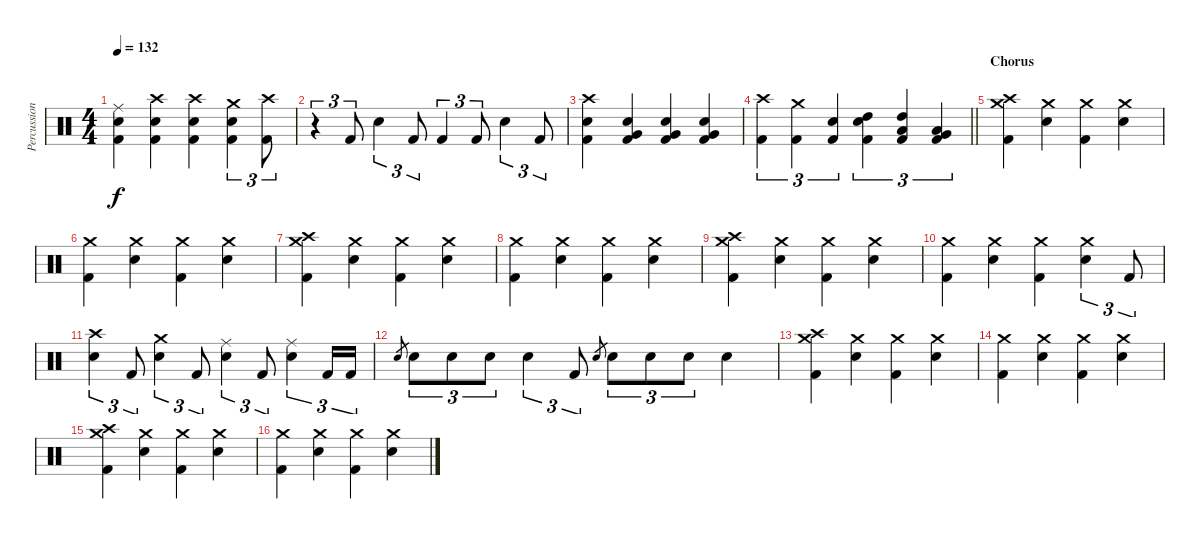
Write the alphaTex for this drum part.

\track ("Percussion" "Percussion") {instrument percussion}
\staff {score}
\articulation defaults
\ts (4 4)
\tempo 132
\clef neutral
\ks c
("Ride (middle)" "Snare (hit) 2" "Kick (hit) 2").4{dy f} ("Crash high (hit)" "Snare (hit) 2" "Kick (hit) 2").4 ("Crash high (hit)" "Snare (hit) 2" "Kick (hit) 2").4 ("Crash medium (hit)" "Snare (hit) 2" "Kick (hit) 2").4{tu (3 2)} ("Crash high (hit)" "Kick (hit) 2").8{tu (3 2)} |
r.4{tu (3 2)} "Kick (hit) 2".8{tu (3 2)} "Snare (hit) 2".4{tu (3 2)} "Kick (hit) 2".8{tu (3 2)} "Kick (hit) 2".4{tu (3 2)} "Kick (hit) 2".8{tu (3 2)} "Snare (hit) 2".4{tu (3 2)} "Kick (hit) 2".8{tu (3 2)} |
("Crash high (hit)" "Snare (hit) 2" "Kick (hit) 2").4 ("Very Low Tom (hit)" "Snare (hit) 2" "Kick (hit) 2").4 ("Very Low Tom (hit)" "Snare (hit) 2" "Kick (hit) 2").4 ("Very Low Tom (hit)" "Snare (hit) 2" "Kick (hit) 2").4 |
\barLineRight lightlight
("Crash high (hit)" "Kick (hit) 2").4{tu (3 2)} ("Crash medium (hit)" "Kick (hit) 2").4{tu (3 2)} ("Snare (hit) 2" "Kick (hit) 2").4{tu (3 2)} ("High Tom (hit)" "Snare (hit) 2" "Kick (hit) 2").4{tu (3 2)} ("Low Tom (hit)" "High Tom (hit)" "Kick (hit) 2").4{tu (3 2)} ("Very Low Tom (hit)" "Low Tom (hit)" "Kick (hit) 2").4{tu (3 2)} |
\section ("" "Chorus")
("Crash high (hit)" "Crash medium (hit)" "Kick (hit) 2").4 ("Crash medium (hit)" "Snare (hit) 2").4 ("Crash medium (hit)" "Kick (hit) 2").4 ("Crash medium (hit)" "Snare (hit) 2").4 |
("Crash medium (hit)" "Kick (hit) 2").4 ("Crash medium (hit)" "Snare (hit) 2").4 ("Crash medium (hit)" "Kick (hit) 2").4 ("Crash medium (hit)" "Snare (hit) 2").4 |
("Crash medium (hit)" "Crash high (hit)" "Kick (hit) 2").4 ("Crash medium (hit)" "Snare (hit) 2").4 ("Crash medium (hit)" "Kick (hit) 2").4 ("Crash medium (hit)" "Snare (hit) 2").4 |
("Crash medium (hit)" "Kick (hit) 2").4 ("Crash medium (hit)" "Snare (hit) 2").4 ("Crash medium (hit)" "Kick (hit) 2").4 ("Crash medium (hit)" "Snare (hit) 2").4 |
("Crash medium (hit)" "Crash high (hit)" "Kick (hit) 2").4 ("Crash medium (hit)" "Snare (hit) 2").4 ("Crash medium (hit)" "Kick (hit) 2").4 ("Crash medium (hit)" "Snare (hit) 2").4 |
("Crash medium (hit)" "Kick (hit) 2").4 ("Crash medium (hit)" "Snare (hit) 2").4 ("Crash medium (hit)" "Kick (hit) 2").4 ("Crash medium (hit)" "Snare (hit) 2").4{tu (3 2)} "Kick (hit) 2".8{tu (3 2)} |
("Crash high (hit)" "Snare (hit) 2").4{tu (3 2)} "Kick (hit) 2".8{tu (3 2)} ("Crash medium (hit)" "Snare (hit) 2").4{tu (3 2)} "Kick (hit) 2".8{tu (3 2)} ("Ride (middle)" "Snare (hit) 2").4{tu (3 2)} "Kick (hit) 2".8{tu (3 2)} ("Ride (middle)" "Snare (hit) 2").4{tu (3 2)} "Kick (hit) 2".16{tu (3 2)} "Kick (hit) 2".16{tu (3 2)} |
"Snare (hit) 2".8{gr} "Snare (hit) 2".8{tu (3 2)} "Snare (hit) 2".8{tu (3 2)} "Snare (hit) 2".8{tu (3 2)} "Snare (hit) 2".4{tu (3 2)} "Kick (hit) 2".8{tu (3 2)} "Snare (hit) 2".8{gr} "Snare (hit) 2".8{tu (3 2)} "Snare (hit) 2".8{tu (3 2)} "Snare (hit) 2".8{tu (3 2)} "Snare (hit) 2".4 |
("Crash high (hit)" "Crash medium (hit)" "Kick (hit) 2").4 ("Crash medium (hit)" "Snare (hit) 2").4 ("Crash medium (hit)" "Kick (hit) 2").4 ("Crash medium (hit)" "Snare (hit) 2").4 |
("Crash medium (hit)" "Kick (hit) 2").4 ("Crash medium (hit)" "Snare (hit) 2").4 ("Crash medium (hit)" "Kick (hit) 2").4 ("Crash medium (hit)" "Snare (hit) 2").4 |
("Crash medium (hit)" "Crash high (hit)" "Kick (hit) 2").4 ("Crash medium (hit)" "Snare (hit) 2").4 ("Crash medium (hit)" "Kick (hit) 2").4 ("Crash medium (hit)" "Snare (hit) 2").4 |
("Crash medium (hit)" "Kick (hit) 2").4 ("Crash medium (hit)" "Snare (hit) 2").4 ("Crash medium (hit)" "Kick (hit) 2").4 ("Crash medium (hit)" "Snare (hit) 2").4
